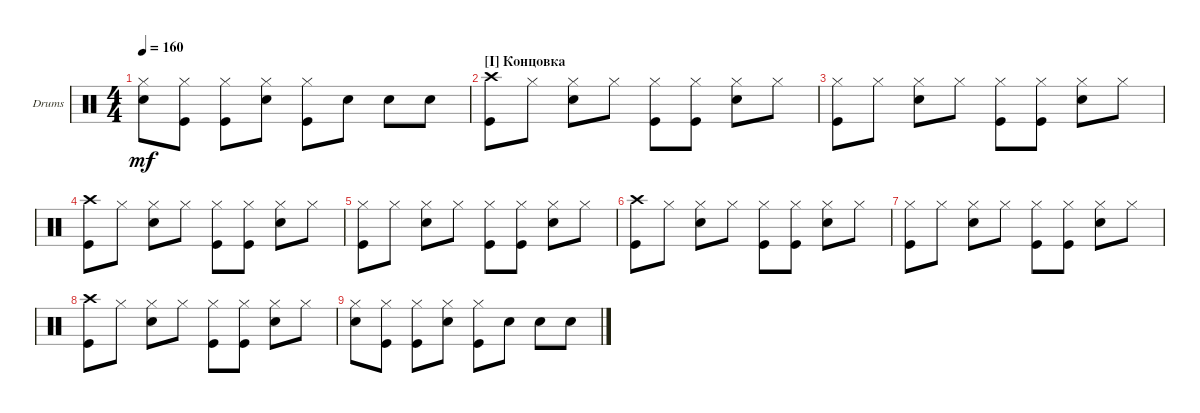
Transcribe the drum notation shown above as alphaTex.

\bracketExtendMode groupsimilarinstruments
\firstSystemTrackNameOrientation horizontal
\otherSystemsTrackNameOrientation horizontal
\track ("Drumkit" "Drums") {instrument percussion}
\staff {score}
\articulation defaults
\ts (4 4)
\tempo 160
\clef neutral
\ks c
("Hi-Hat (closed)" "Snare (hit) 2").8{dy mf} ("Hi-Hat (closed)" "Kick (hit)").8 ("Hi-Hat (closed)" "Kick (hit)").8 ("Hi-Hat (closed)" "Snare (hit) 2").8 ("Kick (hit)" "Hi-Hat (closed)").8 "Snare (hit) 2".8 "Snare (hit) 2".8 "Snare (hit) 2".8 |
\section ("I" "Концовка")
("Kick (hit)" "Crash high (hit)").8 "Hi-Hat (closed)".8 ("Hi-Hat (closed)" "Snare (hit) 2").8 "Hi-Hat (closed)".8 ("Kick (hit)" "Hi-Hat (closed)").8 ("Hi-Hat (closed)" "Kick (hit)").8 ("Hi-Hat (closed)" "Snare (hit) 2").8 "Hi-Hat (closed)".8 |
("Kick (hit)" "Hi-Hat (closed)").8 "Hi-Hat (closed)".8 ("Hi-Hat (closed)" "Snare (hit) 2").8 "Hi-Hat (closed)".8 ("Kick (hit)" "Hi-Hat (closed)").8 ("Hi-Hat (closed)" "Kick (hit)").8 ("Hi-Hat (closed)" "Snare (hit) 2").8 "Hi-Hat (closed)".8 |
("Kick (hit)" "Crash high (hit)").8 "Hi-Hat (closed)".8 ("Hi-Hat (closed)" "Snare (hit) 2").8 "Hi-Hat (closed)".8 ("Kick (hit)" "Hi-Hat (closed)").8 ("Hi-Hat (closed)" "Kick (hit)").8 ("Hi-Hat (closed)" "Snare (hit) 2").8 "Hi-Hat (closed)".8 |
("Kick (hit)" "Hi-Hat (closed)").8 "Hi-Hat (closed)".8 ("Hi-Hat (closed)" "Snare (hit) 2").8 "Hi-Hat (closed)".8 ("Kick (hit)" "Hi-Hat (closed)").8 ("Hi-Hat (closed)" "Kick (hit)").8 ("Hi-Hat (closed)" "Snare (hit) 2").8 "Hi-Hat (closed)".8 |
("Kick (hit)" "Crash high (hit)").8 "Hi-Hat (closed)".8 ("Hi-Hat (closed)" "Snare (hit) 2").8 "Hi-Hat (closed)".8 ("Kick (hit)" "Hi-Hat (closed)").8 ("Hi-Hat (closed)" "Kick (hit)").8 ("Hi-Hat (closed)" "Snare (hit) 2").8 "Hi-Hat (closed)".8 |
("Kick (hit)" "Hi-Hat (closed)").8 "Hi-Hat (closed)".8 ("Hi-Hat (closed)" "Snare (hit) 2").8 "Hi-Hat (closed)".8 ("Kick (hit)" "Hi-Hat (closed)").8 ("Hi-Hat (closed)" "Kick (hit)").8 ("Hi-Hat (closed)" "Snare (hit) 2").8 "Hi-Hat (closed)".8 |
("Kick (hit)" "Crash high (hit)").8 "Hi-Hat (closed)".8 ("Hi-Hat (closed)" "Snare (hit) 2").8 "Hi-Hat (closed)".8 ("Kick (hit)" "Hi-Hat (closed)").8 ("Hi-Hat (closed)" "Kick (hit)").8 ("Hi-Hat (closed)" "Snare (hit) 2").8 "Hi-Hat (closed)".8 |
("Hi-Hat (closed)" "Snare (hit) 2").8 ("Hi-Hat (closed)" "Kick (hit)").8 ("Hi-Hat (closed)" "Kick (hit)").8 ("Hi-Hat (closed)" "Snare (hit) 2").8 ("Kick (hit)" "Hi-Hat (closed)").8 "Snare (hit) 2".8 "Snare (hit) 2".8 "Snare (hit) 2".8
